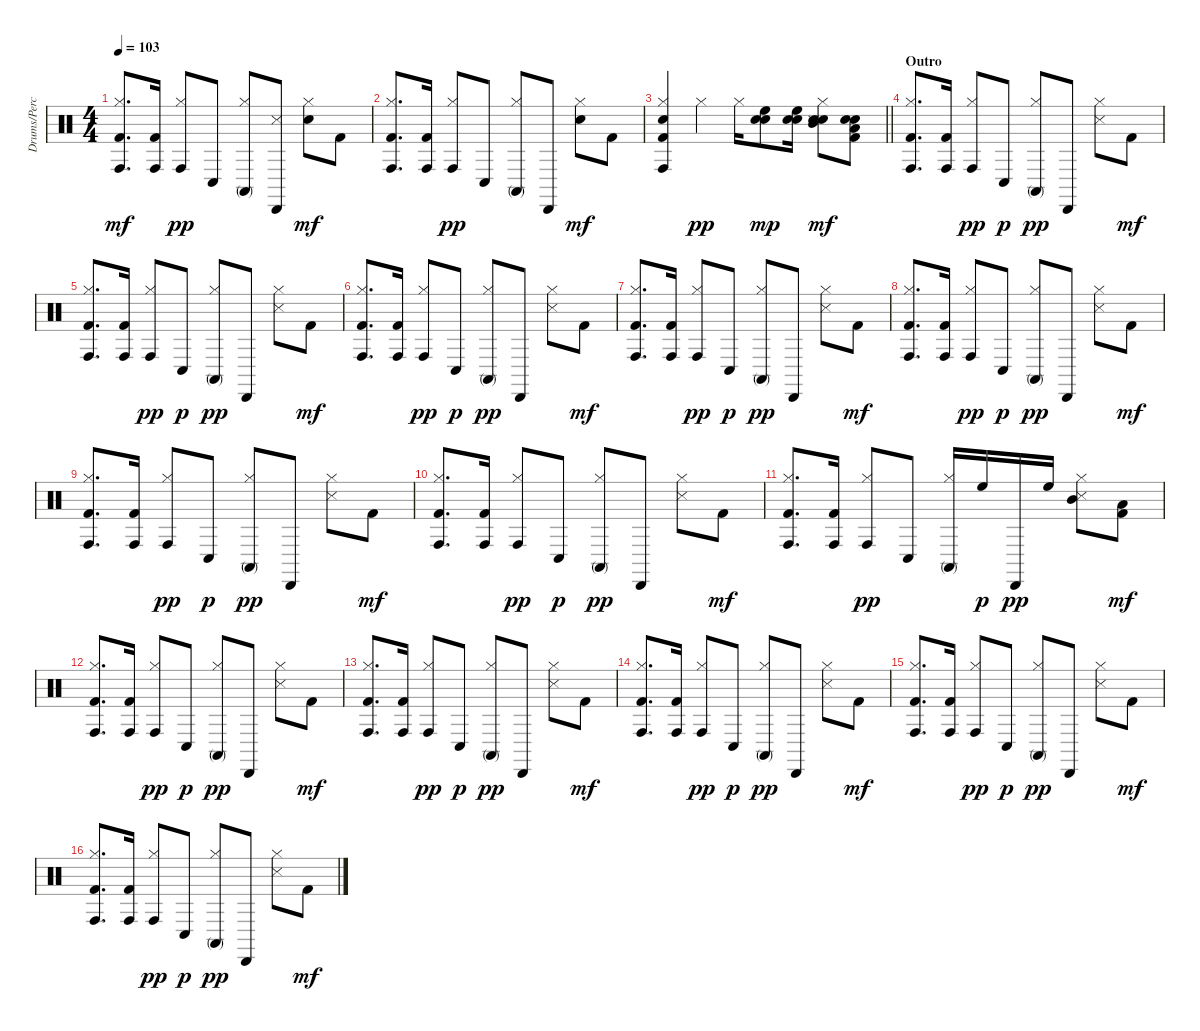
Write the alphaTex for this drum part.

\track ("Drums/Perc." "Drums/Perc") {instrument percussion}
\staff {score}
\articulation defaults
\ts (4 4)
\tempo 103
\clef neutral
\ks c
("Conga high (hit)" "Hi-Hat (closed)" "Kick (hit) 2").8{d dy mf} ("Conga high (hit)" "Kick (hit) 2").16 ("Conga high (hit)" "Hi-Hat (closed)").8{dy pp} "Conga low (hit)".8 ("Conga high (mute)" "Hi-Hat (closed)").8 ("Cabasa (hit)" "Snare (side stick) 3").8 ("Hi-Hat (closed)" "Snare (hit) 2").8{dy mf} "Kick (hit) 2".8 |
("Conga high (hit)" "Hi-Hat (closed)" "Kick (hit) 2").8{d} ("Conga high (hit)" "Kick (hit) 2").16 ("Conga high (hit)" "Hi-Hat (closed)").8{dy pp} "Conga low (hit)".8 ("Conga high (mute)" "Hi-Hat (closed)").8 "Cabasa (hit)".8 ("Hi-Hat (closed)" "Snare (hit) 2").8{dy mf} "Kick (hit) 2".8 |
\barLineRight lightlight
("Conga high (hit)" "Hi-Hat (closed)" "Snare (hit) 2" "Kick (hit) 2").4 "Hi-Hat (closed)".4{dy pp} "Hi-Hat (closed)".16 ("High Floor Tom (hit)" "Electric Snare (hit)" "Snare (hit) 2").8{dy mp} ("High Floor Tom (hit)" "Electric Snare (hit)" "Snare (hit) 2").16 ("Mid Tom (hit)" "Hi-Hat (closed)" "Electric Snare (hit)" "Snare (hit) 2" "Snare (side stick) 3").8{dy mf} ("Low Floor Tom (hit)" "Electric Snare (hit)" "Snare (hit) 2" "Kick (hit) 2").8 |
\section ("" "Outro")
("Conga high (hit)" "Hi-Hat (closed)" "Kick (hit) 2").8{d} ("Conga high (hit)" "Kick (hit) 2").16 ("Conga high (hit)" "Hi-Hat (closed)").8{dy pp} "Conga low (hit)".8{dy p} ("Conga high (mute)" "Hi-Hat (closed)").8{dy pp} "Cabasa (hit)".8 ("Hi-Hat (closed)" "Snare (side stick) 3").8 "Kick (hit) 2".8{dy mf} |
("Conga high (hit)" "Hi-Hat (closed)" "Kick (hit) 2").8{d} ("Conga high (hit)" "Kick (hit) 2").16 ("Conga high (hit)" "Hi-Hat (closed)").8{dy pp} "Conga low (hit)".8{dy p} ("Conga high (mute)" "Hi-Hat (closed)").8{dy pp} "Cabasa (hit)".8 ("Hi-Hat (closed)" "Snare (side stick) 3").8 "Kick (hit) 2".8{dy mf} |
("Conga high (hit)" "Hi-Hat (closed)" "Kick (hit) 2").8{d} ("Conga high (hit)" "Kick (hit) 2").16 ("Conga high (hit)" "Hi-Hat (closed)").8{dy pp} "Conga low (hit)".8{dy p} ("Conga high (mute)" "Hi-Hat (closed)").8{dy pp} "Cabasa (hit)".8 ("Hi-Hat (closed)" "Snare (side stick) 3").8 "Kick (hit) 2".8{dy mf} |
("Conga high (hit)" "Hi-Hat (closed)" "Kick (hit) 2").8{d} ("Conga high (hit)" "Kick (hit) 2").16 ("Conga high (hit)" "Hi-Hat (closed)").8{dy pp} "Conga low (hit)".8{dy p} ("Conga high (mute)" "Hi-Hat (closed)").8{dy pp} "Cabasa (hit)".8 ("Hi-Hat (closed)" "Snare (side stick) 3").8 "Kick (hit) 2".8{dy mf} |
("Conga high (hit)" "Hi-Hat (closed)" "Kick (hit) 2").8{d} ("Conga high (hit)" "Kick (hit) 2").16 ("Conga high (hit)" "Hi-Hat (closed)").8{dy pp} "Conga low (hit)".8{dy p} ("Conga high (mute)" "Hi-Hat (closed)").8{dy pp} "Cabasa (hit)".8 ("Hi-Hat (closed)" "Snare (side stick) 3").8 "Kick (hit) 2".8{dy mf} |
("Conga high (hit)" "Hi-Hat (closed)" "Kick (hit) 2").8{d} ("Conga high (hit)" "Kick (hit) 2").16 ("Conga high (hit)" "Hi-Hat (closed)").8{dy pp} "Conga low (hit)".8{dy p} ("Conga high (mute)" "Hi-Hat (closed)").8{dy pp} "Cabasa (hit)".8 ("Hi-Hat (closed)" "Snare (side stick) 3").8 "Kick (hit) 2".8{dy mf} |
("Conga high (hit)" "Hi-Hat (closed)" "Kick (hit) 2").8{d} ("Conga high (hit)" "Kick (hit) 2").16 ("Conga high (hit)" "Hi-Hat (closed)").8{dy pp} "Conga low (hit)".8{dy p} ("Conga high (mute)" "Hi-Hat (closed)").8{dy pp} "Cabasa (hit)".8 ("Hi-Hat (closed)" "Snare (side stick) 3").8 "Kick (hit) 2".8{dy mf} |
("Conga high (hit)" "Hi-Hat (closed)" "Kick (hit) 2").8{d} ("Conga high (hit)" "Kick (hit) 2").16 ("Conga high (hit)" "Hi-Hat (closed)").8{dy pp} "Conga low (hit)".8 ("Conga high (mute)" "Hi-Hat (closed)").16 "High Floor Tom (hit)".16{dy p} "Cabasa (hit)".16{dy pp} "High Floor Tom (hit)".16 ("Mid Tom (hit)" "Hi-Hat (closed)" "Snare (side stick) 3").8 ("Low Floor Tom (hit)" "Kick (hit) 2").8{dy mf} |
("Conga high (hit)" "Hi-Hat (closed)" "Kick (hit) 2").8{d} ("Conga high (hit)" "Kick (hit) 2").16 ("Conga high (hit)" "Hi-Hat (closed)").8{dy pp} "Conga low (hit)".8{dy p} ("Conga high (mute)" "Hi-Hat (closed)").8{dy pp} "Cabasa (hit)".8 ("Hi-Hat (closed)" "Snare (side stick) 3").8 "Kick (hit) 2".8{dy mf} |
("Conga high (hit)" "Hi-Hat (closed)" "Kick (hit) 2").8{d} ("Conga high (hit)" "Kick (hit) 2").16 ("Conga high (hit)" "Hi-Hat (closed)").8{dy pp} "Conga low (hit)".8{dy p} ("Conga high (mute)" "Hi-Hat (closed)").8{dy pp} "Cabasa (hit)".8 ("Hi-Hat (closed)" "Snare (side stick) 3").8 "Kick (hit) 2".8{dy mf} |
("Conga high (hit)" "Hi-Hat (closed)" "Kick (hit) 2").8{d} ("Conga high (hit)" "Kick (hit) 2").16 ("Conga high (hit)" "Hi-Hat (closed)").8{dy pp} "Conga low (hit)".8{dy p} ("Conga high (mute)" "Hi-Hat (closed)").8{dy pp} "Cabasa (hit)".8 ("Hi-Hat (closed)" "Snare (side stick) 3").8 "Kick (hit) 2".8{dy mf} |
("Conga high (hit)" "Hi-Hat (closed)" "Kick (hit) 2").8{d} ("Conga high (hit)" "Kick (hit) 2").16 ("Conga high (hit)" "Hi-Hat (closed)").8{dy pp} "Conga low (hit)".8{dy p} ("Conga high (mute)" "Hi-Hat (closed)").8{dy pp} "Cabasa (hit)".8 ("Hi-Hat (closed)" "Snare (side stick) 3").8 "Kick (hit) 2".8{dy mf} |
("Conga high (hit)" "Hi-Hat (closed)" "Kick (hit) 2").8{d} ("Conga high (hit)" "Kick (hit) 2").16 ("Conga high (hit)" "Hi-Hat (closed)").8{dy pp} "Conga low (hit)".8{dy p} ("Conga high (mute)" "Hi-Hat (closed)").8{dy pp} "Cabasa (hit)".8 ("Hi-Hat (closed)" "Snare (side stick) 3").8 "Kick (hit) 2".8{dy mf}
